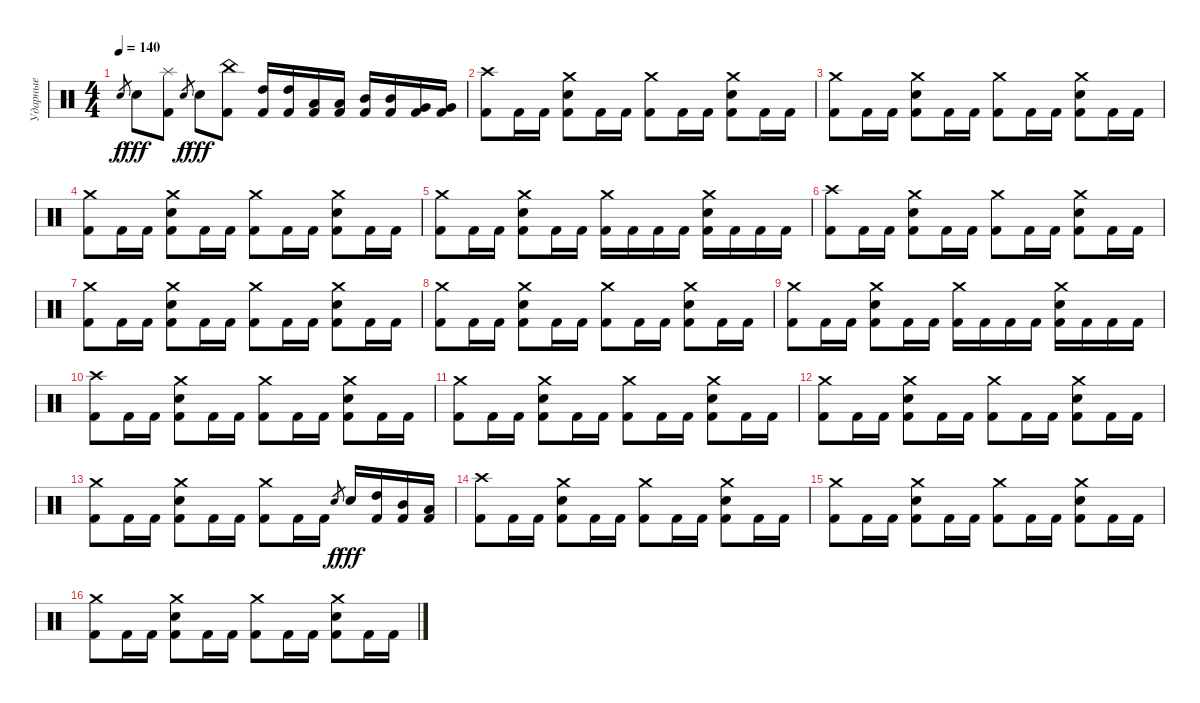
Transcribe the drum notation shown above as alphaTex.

\track ("Ударные" "Ударные") {instrument percussion}
\staff {score}
\articulation defaults
\ts (4 4)
\tempo 140
\clef neutral
\ks c "Electric Snare (hit)".8{gr dy f} "Electric Snare (hit)".8{dy fff}
("Splash (hit)" "Kick (hit) 2").8 "Electric Snare (hit)".8{gr dy f} "Electric Snare (hit)".8{dy fff} ("China (hit)" "Kick (hit) 2").8 ("High Tom (hit)" "Kick (hit) 2").16 ("High Tom (hit)" "Kick (hit) 2").16 ("Low Tom (hit)" "Kick (hit) 2").16 ("Low Tom (hit)" "Kick (hit) 2").16 ("Mid Tom (hit)" "Kick (hit) 2").16 ("Mid Tom (hit)" "Kick (hit) 2").16 ("Very Low Tom (hit)" "Kick (hit) 2").16 ("Very Low Tom (hit)" "Kick (hit) 2").16 |
("Crash high (hit)" "Kick (hit) 2").8 "Kick (hit) 2".16 "Kick (hit) 2".16 ("Crash medium (hit)" "Electric Snare (hit)" "Kick (hit) 2").8 "Kick (hit) 2".16 "Kick (hit) 2".16 ("Crash medium (hit)" "Kick (hit) 2").8 "Kick (hit) 2".16 "Kick (hit) 2".16 ("Crash medium (hit)" "Electric Snare (hit)" "Kick (hit) 2").8 "Kick (hit) 2".16 "Kick (hit) 2".16 |
("Crash medium (hit)" "Kick (hit) 2").8 "Kick (hit) 2".16 "Kick (hit) 2".16 ("Crash medium (hit)" "Electric Snare (hit)" "Kick (hit) 2").8 "Kick (hit) 2".16 "Kick (hit) 2".16 ("Crash medium (hit)" "Kick (hit) 2").8 "Kick (hit) 2".16 "Kick (hit) 2".16 ("Crash medium (hit)" "Electric Snare (hit)" "Kick (hit) 2").8 "Kick (hit) 2".16 "Kick (hit) 2".16 |
("Crash medium (hit)" "Kick (hit) 2").8 "Kick (hit) 2".16 "Kick (hit) 2".16 ("Crash medium (hit)" "Electric Snare (hit)" "Kick (hit) 2").8 "Kick (hit) 2".16 "Kick (hit) 2".16 ("Crash medium (hit)" "Kick (hit) 2").8 "Kick (hit) 2".16 "Kick (hit) 2".16 ("Crash medium (hit)" "Electric Snare (hit)" "Kick (hit) 2").8 "Kick (hit) 2".16 "Kick (hit) 2".16 |
("Crash medium (hit)" "Kick (hit) 2").8 "Kick (hit) 2".16 "Kick (hit) 2".16 ("Crash medium (hit)" "Electric Snare (hit)" "Kick (hit) 2").8 "Kick (hit) 2".16 "Kick (hit) 2".16 ("Crash medium (hit)" "Kick (hit) 2").16 "Kick (hit) 2".16 "Kick (hit) 2".16 "Kick (hit) 2".16 ("Crash medium (hit)" "Electric Snare (hit)" "Kick (hit) 2").16 "Kick (hit) 2".16 "Kick (hit) 2".16 "Kick (hit) 2".16 |
("Crash high (hit)" "Kick (hit) 2").8 "Kick (hit) 2".16 "Kick (hit) 2".16 ("Crash medium (hit)" "Electric Snare (hit)" "Kick (hit) 2").8 "Kick (hit) 2".16 "Kick (hit) 2".16 ("Crash medium (hit)" "Kick (hit) 2").8 "Kick (hit) 2".16 "Kick (hit) 2".16 ("Crash medium (hit)" "Electric Snare (hit)" "Kick (hit) 2").8 "Kick (hit) 2".16 "Kick (hit) 2".16 |
("Crash medium (hit)" "Kick (hit) 2").8 "Kick (hit) 2".16 "Kick (hit) 2".16 ("Crash medium (hit)" "Electric Snare (hit)" "Kick (hit) 2").8 "Kick (hit) 2".16 "Kick (hit) 2".16 ("Crash medium (hit)" "Kick (hit) 2").8 "Kick (hit) 2".16 "Kick (hit) 2".16 ("Crash medium (hit)" "Electric Snare (hit)" "Kick (hit) 2").8 "Kick (hit) 2".16 "Kick (hit) 2".16 |
("Crash medium (hit)" "Kick (hit) 2").8 "Kick (hit) 2".16 "Kick (hit) 2".16 ("Crash medium (hit)" "Electric Snare (hit)" "Kick (hit) 2").8 "Kick (hit) 2".16 "Kick (hit) 2".16 ("Crash medium (hit)" "Kick (hit) 2").8 "Kick (hit) 2".16 "Kick (hit) 2".16 ("Crash medium (hit)" "Electric Snare (hit)" "Kick (hit) 2").8 "Kick (hit) 2".16 "Kick (hit) 2".16 |
("Crash medium (hit)" "Kick (hit) 2").8 "Kick (hit) 2".16 "Kick (hit) 2".16 ("Crash medium (hit)" "Electric Snare (hit)" "Kick (hit) 2").8 "Kick (hit) 2".16 "Kick (hit) 2".16 ("Crash medium (hit)" "Kick (hit) 2").16 "Kick (hit) 2".16 "Kick (hit) 2".16 "Kick (hit) 2".16 ("Crash medium (hit)" "Electric Snare (hit)" "Kick (hit) 2").16 "Kick (hit) 2".16 "Kick (hit) 2".16 "Kick (hit) 2".16 |
("Crash high (hit)" "Kick (hit) 2").8 "Kick (hit) 2".16 "Kick (hit) 2".16 ("Crash medium (hit)" "Electric Snare (hit)" "Kick (hit) 2").8 "Kick (hit) 2".16 "Kick (hit) 2".16 ("Crash medium (hit)" "Kick (hit) 2").8 "Kick (hit) 2".16 "Kick (hit) 2".16 ("Crash medium (hit)" "Electric Snare (hit)" "Kick (hit) 2").8 "Kick (hit) 2".16 "Kick (hit) 2".16 |
("Crash medium (hit)" "Kick (hit) 2").8 "Kick (hit) 2".16 "Kick (hit) 2".16 ("Crash medium (hit)" "Electric Snare (hit)" "Kick (hit) 2").8 "Kick (hit) 2".16 "Kick (hit) 2".16 ("Crash medium (hit)" "Kick (hit) 2").8 "Kick (hit) 2".16 "Kick (hit) 2".16 ("Crash medium (hit)" "Electric Snare (hit)" "Kick (hit) 2").8 "Kick (hit) 2".16 "Kick (hit) 2".16 |
("Crash medium (hit)" "Kick (hit) 2").8 "Kick (hit) 2".16 "Kick (hit) 2".16 ("Crash medium (hit)" "Electric Snare (hit)" "Kick (hit) 2").8 "Kick (hit) 2".16 "Kick (hit) 2".16 ("Crash medium (hit)" "Kick (hit) 2").8 "Kick (hit) 2".16 "Kick (hit) 2".16 ("Crash medium (hit)" "Electric Snare (hit)" "Kick (hit) 2").8 "Kick (hit) 2".16 "Kick (hit) 2".16 |
("Crash medium (hit)" "Kick (hit) 2").8 "Kick (hit) 2".16 "Kick (hit) 2".16 ("Crash medium (hit)" "Electric Snare (hit)" "Kick (hit) 2").8 "Kick (hit) 2".16 "Kick (hit) 2".16 ("Crash medium (hit)" "Kick (hit) 2").8 "Kick (hit) 2".16 "Kick (hit) 2".16 "Electric Snare (hit)".8{gr dy f} "Electric Snare (hit)".16{dy fff} ("High Tom (hit)" "Kick (hit) 2").16 ("Mid Tom (hit)" "Kick (hit) 2").16 ("Low Tom (hit)" "Kick (hit) 2").16 |
("Crash high (hit)" "Kick (hit) 2").8 "Kick (hit) 2".16 "Kick (hit) 2".16 ("Crash medium (hit)" "Electric Snare (hit)" "Kick (hit) 2").8 "Kick (hit) 2".16 "Kick (hit) 2".16 ("Crash medium (hit)" "Kick (hit) 2").8 "Kick (hit) 2".16 "Kick (hit) 2".16 ("Crash medium (hit)" "Electric Snare (hit)" "Kick (hit) 2").8 "Kick (hit) 2".16 "Kick (hit) 2".16 |
("Crash medium (hit)" "Kick (hit) 2").8 "Kick (hit) 2".16 "Kick (hit) 2".16 ("Crash medium (hit)" "Electric Snare (hit)" "Kick (hit) 2").8 "Kick (hit) 2".16 "Kick (hit) 2".16 ("Crash medium (hit)" "Kick (hit) 2").8 "Kick (hit) 2".16 "Kick (hit) 2".16 ("Crash medium (hit)" "Electric Snare (hit)" "Kick (hit) 2").8 "Kick (hit) 2".16 "Kick (hit) 2".16 |
("Crash medium (hit)" "Kick (hit) 2").8 "Kick (hit) 2".16 "Kick (hit) 2".16 ("Crash medium (hit)" "Electric Snare (hit)" "Kick (hit) 2").8 "Kick (hit) 2".16 "Kick (hit) 2".16 ("Crash medium (hit)" "Kick (hit) 2").8 "Kick (hit) 2".16 "Kick (hit) 2".16 ("Crash medium (hit)" "Electric Snare (hit)" "Kick (hit) 2").8 "Kick (hit) 2".16 "Kick (hit) 2".16
